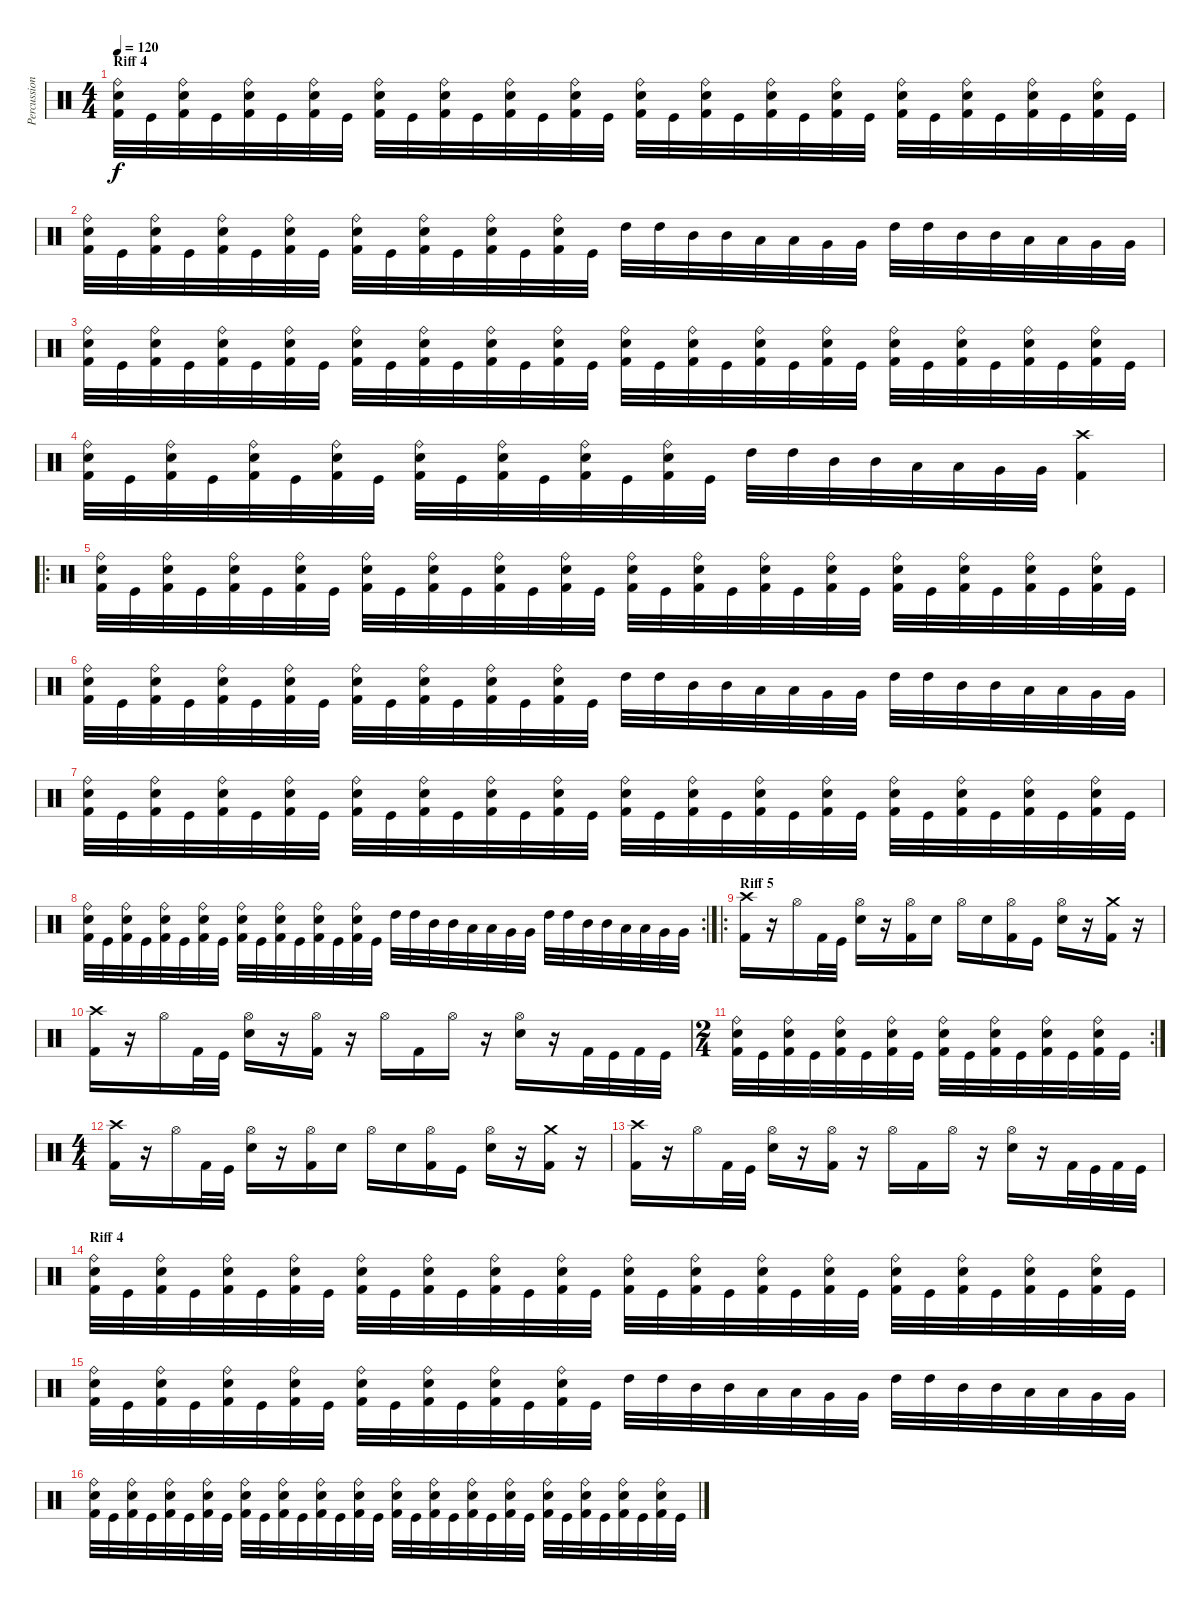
\track ("Percussion" "Percussion") {instrument percussion}
\staff {score}
\articulation defaults
\ts (4 4)
\section ("" "Riff 4")
\tempo 120
\clef neutral
\ks c
("Kick (hit) 2" "Electric Snare (hit)" "Ride (bell)").32{dy f} "Kick (hit)".32 ("Kick (hit) 2" "Electric Snare (hit)" "Ride (bell)").32 "Kick (hit)".32 ("Kick (hit) 2" "Electric Snare (hit)" "Ride (bell)").32 "Kick (hit)".32 ("Kick (hit) 2" "Electric Snare (hit)" "Ride (bell)").32 "Kick (hit)".32 ("Kick (hit) 2" "Electric Snare (hit)" "Ride (bell)").32 "Kick (hit)".32 ("Kick (hit) 2" "Electric Snare (hit)" "Ride (bell)").32 "Kick (hit)".32 ("Kick (hit) 2" "Electric Snare (hit)" "Ride (bell)").32 "Kick (hit)".32 ("Kick (hit) 2" "Electric Snare (hit)" "Ride (bell)").32 "Kick (hit)".32 ("Kick (hit) 2" "Electric Snare (hit)" "Ride (bell)").32 "Kick (hit)".32 ("Kick (hit) 2" "Electric Snare (hit)" "Ride (bell)").32 "Kick (hit)".32 ("Kick (hit) 2" "Electric Snare (hit)" "Ride (bell)").32 "Kick (hit)".32 ("Kick (hit) 2" "Electric Snare (hit)" "Ride (bell)").32 "Kick (hit)".32 ("Kick (hit) 2" "Electric Snare (hit)" "Ride (bell)").32 "Kick (hit)".32 ("Kick (hit) 2" "Electric Snare (hit)" "Ride (bell)").32 "Kick (hit)".32 ("Kick (hit) 2" "Electric Snare (hit)" "Ride (bell)").32 "Kick (hit)".32 ("Kick (hit) 2" "Electric Snare (hit)" "Ride (bell)").32 "Kick (hit)".32 |
("Kick (hit) 2" "Electric Snare (hit)" "Ride (bell)").32 "Kick (hit)".32 ("Kick (hit) 2" "Electric Snare (hit)" "Ride (bell)").32 "Kick (hit)".32 ("Kick (hit) 2" "Electric Snare (hit)" "Ride (bell)").32 "Kick (hit)".32 ("Kick (hit) 2" "Electric Snare (hit)" "Ride (bell)").32 "Kick (hit)".32 ("Kick (hit) 2" "Electric Snare (hit)" "Ride (bell)").32 "Kick (hit)".32 ("Kick (hit) 2" "Electric Snare (hit)" "Ride (bell)").32 "Kick (hit)".32 ("Kick (hit) 2" "Electric Snare (hit)" "Ride (bell)").32 "Kick (hit)".32 ("Kick (hit) 2" "Electric Snare (hit)" "Ride (bell)").32 "Kick (hit)".32 "High Tom (hit)".32 "High Tom (hit)".32 "Mid Tom (hit)".32 "Mid Tom (hit)".32 "Low Tom (hit)".32 "Low Tom (hit)".32 "Very Low Tom (hit)".32 "Very Low Tom (hit)".32 "High Tom (hit)".32 "High Tom (hit)".32 "Mid Tom (hit)".32 "Mid Tom (hit)".32 "Low Tom (hit)".32 "Low Tom (hit)".32 "Very Low Tom (hit)".32 "Very Low Tom (hit)".32 |
("Kick (hit) 2" "Electric Snare (hit)" "Ride (bell)").32 "Kick (hit)".32 ("Kick (hit) 2" "Electric Snare (hit)" "Ride (bell)").32 "Kick (hit)".32 ("Kick (hit) 2" "Electric Snare (hit)" "Ride (bell)").32 "Kick (hit)".32 ("Kick (hit) 2" "Electric Snare (hit)" "Ride (bell)").32 "Kick (hit)".32 ("Kick (hit) 2" "Electric Snare (hit)" "Ride (bell)").32 "Kick (hit)".32 ("Kick (hit) 2" "Electric Snare (hit)" "Ride (bell)").32 "Kick (hit)".32 ("Kick (hit) 2" "Electric Snare (hit)" "Ride (bell)").32 "Kick (hit)".32 ("Kick (hit) 2" "Electric Snare (hit)" "Ride (bell)").32 "Kick (hit)".32 ("Kick (hit) 2" "Electric Snare (hit)" "Ride (bell)").32 "Kick (hit)".32 ("Kick (hit) 2" "Electric Snare (hit)" "Ride (bell)").32 "Kick (hit)".32 ("Kick (hit) 2" "Electric Snare (hit)" "Ride (bell)").32 "Kick (hit)".32 ("Kick (hit) 2" "Electric Snare (hit)" "Ride (bell)").32 "Kick (hit)".32 ("Kick (hit) 2" "Electric Snare (hit)" "Ride (bell)").32 "Kick (hit)".32 ("Kick (hit) 2" "Electric Snare (hit)" "Ride (bell)").32 "Kick (hit)".32 ("Kick (hit) 2" "Electric Snare (hit)" "Ride (bell)").32 "Kick (hit)".32 ("Kick (hit) 2" "Electric Snare (hit)" "Ride (bell)").32 "Kick (hit)".32 |
("Kick (hit) 2" "Electric Snare (hit)" "Ride (bell)").32 "Kick (hit)".32 ("Kick (hit) 2" "Electric Snare (hit)" "Ride (bell)").32 "Kick (hit)".32 ("Kick (hit) 2" "Electric Snare (hit)" "Ride (bell)").32 "Kick (hit)".32 ("Kick (hit) 2" "Electric Snare (hit)" "Ride (bell)").32 "Kick (hit)".32 ("Kick (hit) 2" "Electric Snare (hit)" "Ride (bell)").32 "Kick (hit)".32 ("Kick (hit) 2" "Electric Snare (hit)" "Ride (bell)").32 "Kick (hit)".32 ("Kick (hit) 2" "Electric Snare (hit)" "Ride (bell)").32 "Kick (hit)".32 ("Kick (hit) 2" "Electric Snare (hit)" "Ride (bell)").32 "Kick (hit)".32 "High Tom (hit)".32 "High Tom (hit)".32 "Mid Tom (hit)".32 "Mid Tom (hit)".32 "Low Tom (hit)".32 "Low Tom (hit)".32 "Very Low Tom (hit)".32 "Very Low Tom (hit)".32 ("Kick (hit) 2" "Crash high (hit)").4 |
\ro
("Kick (hit) 2" "Electric Snare (hit)" "Ride (bell)").32 "Kick (hit)".32 ("Kick (hit) 2" "Electric Snare (hit)" "Ride (bell)").32 "Kick (hit)".32 ("Kick (hit) 2" "Electric Snare (hit)" "Ride (bell)").32 "Kick (hit)".32 ("Kick (hit) 2" "Electric Snare (hit)" "Ride (bell)").32 "Kick (hit)".32 ("Kick (hit) 2" "Electric Snare (hit)" "Ride (bell)").32 "Kick (hit)".32 ("Kick (hit) 2" "Electric Snare (hit)" "Ride (bell)").32 "Kick (hit)".32 ("Kick (hit) 2" "Electric Snare (hit)" "Ride (bell)").32 "Kick (hit)".32 ("Kick (hit) 2" "Electric Snare (hit)" "Ride (bell)").32 "Kick (hit)".32 ("Kick (hit) 2" "Electric Snare (hit)" "Ride (bell)").32 "Kick (hit)".32 ("Kick (hit) 2" "Electric Snare (hit)" "Ride (bell)").32 "Kick (hit)".32 ("Kick (hit) 2" "Electric Snare (hit)" "Ride (bell)").32 "Kick (hit)".32 ("Kick (hit) 2" "Electric Snare (hit)" "Ride (bell)").32 "Kick (hit)".32 ("Kick (hit) 2" "Electric Snare (hit)" "Ride (bell)").32 "Kick (hit)".32 ("Kick (hit) 2" "Electric Snare (hit)" "Ride (bell)").32 "Kick (hit)".32 ("Kick (hit) 2" "Electric Snare (hit)" "Ride (bell)").32 "Kick (hit)".32 ("Kick (hit) 2" "Electric Snare (hit)" "Ride (bell)").32 "Kick (hit)".32 |
("Kick (hit) 2" "Electric Snare (hit)" "Ride (bell)").32 "Kick (hit)".32 ("Kick (hit) 2" "Electric Snare (hit)" "Ride (bell)").32 "Kick (hit)".32 ("Kick (hit) 2" "Electric Snare (hit)" "Ride (bell)").32 "Kick (hit)".32 ("Kick (hit) 2" "Electric Snare (hit)" "Ride (bell)").32 "Kick (hit)".32 ("Kick (hit) 2" "Electric Snare (hit)" "Ride (bell)").32 "Kick (hit)".32 ("Kick (hit) 2" "Electric Snare (hit)" "Ride (bell)").32 "Kick (hit)".32 ("Kick (hit) 2" "Electric Snare (hit)" "Ride (bell)").32 "Kick (hit)".32 ("Kick (hit) 2" "Electric Snare (hit)" "Ride (bell)").32 "Kick (hit)".32 "High Tom (hit)".32 "High Tom (hit)".32 "Mid Tom (hit)".32 "Mid Tom (hit)".32 "Low Tom (hit)".32 "Low Tom (hit)".32 "Very Low Tom (hit)".32 "Very Low Tom (hit)".32 "High Tom (hit)".32 "High Tom (hit)".32 "Mid Tom (hit)".32 "Mid Tom (hit)".32 "Low Tom (hit)".32 "Low Tom (hit)".32 "Very Low Tom (hit)".32 "Very Low Tom (hit)".32 |
("Kick (hit) 2" "Electric Snare (hit)" "Ride (bell)").32 "Kick (hit)".32 ("Kick (hit) 2" "Electric Snare (hit)" "Ride (bell)").32 "Kick (hit)".32 ("Kick (hit) 2" "Electric Snare (hit)" "Ride (bell)").32 "Kick (hit)".32 ("Kick (hit) 2" "Electric Snare (hit)" "Ride (bell)").32 "Kick (hit)".32 ("Kick (hit) 2" "Electric Snare (hit)" "Ride (bell)").32 "Kick (hit)".32 ("Kick (hit) 2" "Electric Snare (hit)" "Ride (bell)").32 "Kick (hit)".32 ("Kick (hit) 2" "Electric Snare (hit)" "Ride (bell)").32 "Kick (hit)".32 ("Kick (hit) 2" "Electric Snare (hit)" "Ride (bell)").32 "Kick (hit)".32 ("Kick (hit) 2" "Electric Snare (hit)" "Ride (bell)").32 "Kick (hit)".32 ("Kick (hit) 2" "Electric Snare (hit)" "Ride (bell)").32 "Kick (hit)".32 ("Kick (hit) 2" "Electric Snare (hit)" "Ride (bell)").32 "Kick (hit)".32 ("Kick (hit) 2" "Electric Snare (hit)" "Ride (bell)").32 "Kick (hit)".32 ("Kick (hit) 2" "Electric Snare (hit)" "Ride (bell)").32 "Kick (hit)".32 ("Kick (hit) 2" "Electric Snare (hit)" "Ride (bell)").32 "Kick (hit)".32 ("Kick (hit) 2" "Electric Snare (hit)" "Ride (bell)").32 "Kick (hit)".32 ("Kick (hit) 2" "Electric Snare (hit)" "Ride (bell)").32 "Kick (hit)".32 |
\rc 2
("Kick (hit) 2" "Electric Snare (hit)" "Ride (bell)").32 "Kick (hit)".32 ("Kick (hit) 2" "Electric Snare (hit)" "Ride (bell)").32 "Kick (hit)".32 ("Kick (hit) 2" "Electric Snare (hit)" "Ride (bell)").32 "Kick (hit)".32 ("Kick (hit) 2" "Electric Snare (hit)" "Ride (bell)").32 "Kick (hit)".32 ("Kick (hit) 2" "Electric Snare (hit)" "Ride (bell)").32 "Kick (hit)".32 ("Kick (hit) 2" "Electric Snare (hit)" "Ride (bell)").32 "Kick (hit)".32 ("Kick (hit) 2" "Electric Snare (hit)" "Ride (bell)").32 "Kick (hit)".32 ("Kick (hit) 2" "Electric Snare (hit)" "Ride (bell)").32 "Kick (hit)".32 "High Tom (hit)".32 "High Tom (hit)".32 "Mid Tom (hit)".32 "Mid Tom (hit)".32 "Low Tom (hit)".32 "Low Tom (hit)".32 "Very Low Tom (hit)".32 "Very Low Tom (hit)".32 "High Tom (hit)".32 "High Tom (hit)".32 "Mid Tom (hit)".32 "Mid Tom (hit)".32 "Low Tom (hit)".32 "Low Tom (hit)".32 "Very Low Tom (hit)".32 "Very Low Tom (hit)".32 |
\ro
\section ("" "Riff 5")
("Kick (hit) 2" "Crash high (hit)").16 r.16 "Hi-Hat (open)".16 "Kick (hit) 2".32 "Kick (hit)".32 ("Electric Snare (hit)" "Hi-Hat (open)").16 r.16 ("Kick (hit) 2" "Hi-Hat (open)").16 "Electric Snare (hit)".16 "Hi-Hat (open)".16 "Electric Snare (hit)".16 ("Kick (hit) 2" "Hi-Hat (open)").16 "Kick (hit)".16 ("Electric Snare (hit)" "Hi-Hat (open)").16 r.16 ("Kick (hit) 2" "Crash medium (hit)").16 r.16 |
("Kick (hit) 2" "Crash high (hit)").16 r.16 "Hi-Hat (open)".16 "Kick (hit) 2".32 "Kick (hit)".32 ("Electric Snare (hit)" "Hi-Hat (open)").16 r.16 ("Kick (hit) 2" "Hi-Hat (open)").16 r.16 "Hi-Hat (open)".16 "Kick (hit) 2".16 "Hi-Hat (open)".16 r.16 ("Electric Snare (hit)" "Hi-Hat (open)").16 r.16 "Kick (hit) 2".32 "Kick (hit)".32 "Kick (hit) 2".32 "Kick (hit)".32 |
\rc 2
\ts (2 4)
("Kick (hit) 2" "Electric Snare (hit)" "Ride (bell)").32 "Kick (hit)".32 ("Kick (hit) 2" "Electric Snare (hit)" "Ride (bell)").32 "Kick (hit)".32 ("Kick (hit) 2" "Electric Snare (hit)" "Ride (bell)").32 "Kick (hit)".32 ("Kick (hit) 2" "Electric Snare (hit)" "Ride (bell)").32 "Kick (hit)".32 ("Kick (hit) 2" "Electric Snare (hit)" "Ride (bell)").32 "Kick (hit)".32 ("Kick (hit) 2" "Electric Snare (hit)" "Ride (bell)").32 "Kick (hit)".32 ("Kick (hit) 2" "Electric Snare (hit)" "Ride (bell)").32 "Kick (hit)".32 ("Kick (hit) 2" "Electric Snare (hit)" "Ride (bell)").32 "Kick (hit)".32 |
\ts (4 4)
("Kick (hit) 2" "Crash high (hit)").16 r.16 "Hi-Hat (open)".16 "Kick (hit) 2".32 "Kick (hit)".32 ("Electric Snare (hit)" "Hi-Hat (open)").16 r.16 ("Kick (hit) 2" "Hi-Hat (open)").16 "Electric Snare (hit)".16 "Hi-Hat (open)".16 "Electric Snare (hit)".16 ("Kick (hit) 2" "Hi-Hat (open)").16 "Kick (hit)".16 ("Electric Snare (hit)" "Hi-Hat (open)").16 r.16 ("Kick (hit) 2" "Crash medium (hit)").16 r.16 |
("Kick (hit) 2" "Crash high (hit)").16 r.16 "Hi-Hat (open)".16 "Kick (hit) 2".32 "Kick (hit)".32 ("Electric Snare (hit)" "Hi-Hat (open)").16 r.16 ("Kick (hit) 2" "Hi-Hat (open)").16 r.16 "Hi-Hat (open)".16 "Kick (hit) 2".16 "Hi-Hat (open)".16 r.16 ("Electric Snare (hit)" "Hi-Hat (open)").16 r.16 "Kick (hit) 2".32 "Kick (hit)".32 "Kick (hit) 2".32 "Kick (hit)".32 |
\section ("" "Riff 4")
("Kick (hit) 2" "Electric Snare (hit)" "Ride (bell)").32 "Kick (hit)".32 ("Kick (hit) 2" "Electric Snare (hit)" "Ride (bell)").32 "Kick (hit)".32 ("Kick (hit) 2" "Electric Snare (hit)" "Ride (bell)").32 "Kick (hit)".32 ("Kick (hit) 2" "Electric Snare (hit)" "Ride (bell)").32 "Kick (hit)".32 ("Kick (hit) 2" "Electric Snare (hit)" "Ride (bell)").32 "Kick (hit)".32 ("Kick (hit) 2" "Electric Snare (hit)" "Ride (bell)").32 "Kick (hit)".32 ("Kick (hit) 2" "Electric Snare (hit)" "Ride (bell)").32 "Kick (hit)".32 ("Kick (hit) 2" "Electric Snare (hit)" "Ride (bell)").32 "Kick (hit)".32 ("Kick (hit) 2" "Electric Snare (hit)" "Ride (bell)").32 "Kick (hit)".32 ("Kick (hit) 2" "Electric Snare (hit)" "Ride (bell)").32 "Kick (hit)".32 ("Kick (hit) 2" "Electric Snare (hit)" "Ride (bell)").32 "Kick (hit)".32 ("Kick (hit) 2" "Electric Snare (hit)" "Ride (bell)").32 "Kick (hit)".32 ("Kick (hit) 2" "Electric Snare (hit)" "Ride (bell)").32 "Kick (hit)".32 ("Kick (hit) 2" "Electric Snare (hit)" "Ride (bell)").32 "Kick (hit)".32 ("Kick (hit) 2" "Electric Snare (hit)" "Ride (bell)").32 "Kick (hit)".32 ("Kick (hit) 2" "Electric Snare (hit)" "Ride (bell)").32 "Kick (hit)".32 |
("Kick (hit) 2" "Electric Snare (hit)" "Ride (bell)").32 "Kick (hit)".32 ("Kick (hit) 2" "Electric Snare (hit)" "Ride (bell)").32 "Kick (hit)".32 ("Kick (hit) 2" "Electric Snare (hit)" "Ride (bell)").32 "Kick (hit)".32 ("Kick (hit) 2" "Electric Snare (hit)" "Ride (bell)").32 "Kick (hit)".32 ("Kick (hit) 2" "Electric Snare (hit)" "Ride (bell)").32 "Kick (hit)".32 ("Kick (hit) 2" "Electric Snare (hit)" "Ride (bell)").32 "Kick (hit)".32 ("Kick (hit) 2" "Electric Snare (hit)" "Ride (bell)").32 "Kick (hit)".32 ("Kick (hit) 2" "Electric Snare (hit)" "Ride (bell)").32 "Kick (hit)".32 "High Tom (hit)".32 "High Tom (hit)".32 "Mid Tom (hit)".32 "Mid Tom (hit)".32 "Low Tom (hit)".32 "Low Tom (hit)".32 "Very Low Tom (hit)".32 "Very Low Tom (hit)".32 "High Tom (hit)".32 "High Tom (hit)".32 "Mid Tom (hit)".32 "Mid Tom (hit)".32 "Low Tom (hit)".32 "Low Tom (hit)".32 "Very Low Tom (hit)".32 "Very Low Tom (hit)".32 |
("Kick (hit) 2" "Electric Snare (hit)" "Ride (bell)").32 "Kick (hit)".32 ("Kick (hit) 2" "Electric Snare (hit)" "Ride (bell)").32 "Kick (hit)".32 ("Kick (hit) 2" "Electric Snare (hit)" "Ride (bell)").32 "Kick (hit)".32 ("Kick (hit) 2" "Electric Snare (hit)" "Ride (bell)").32 "Kick (hit)".32 ("Kick (hit) 2" "Electric Snare (hit)" "Ride (bell)").32 "Kick (hit)".32 ("Kick (hit) 2" "Electric Snare (hit)" "Ride (bell)").32 "Kick (hit)".32 ("Kick (hit) 2" "Electric Snare (hit)" "Ride (bell)").32 "Kick (hit)".32 ("Kick (hit) 2" "Electric Snare (hit)" "Ride (bell)").32 "Kick (hit)".32 ("Kick (hit) 2" "Electric Snare (hit)" "Ride (bell)").32 "Kick (hit)".32 ("Kick (hit) 2" "Electric Snare (hit)" "Ride (bell)").32 "Kick (hit)".32 ("Kick (hit) 2" "Electric Snare (hit)" "Ride (bell)").32 "Kick (hit)".32 ("Kick (hit) 2" "Electric Snare (hit)" "Ride (bell)").32 "Kick (hit)".32 ("Kick (hit) 2" "Electric Snare (hit)" "Ride (bell)").32 "Kick (hit)".32 ("Kick (hit) 2" "Electric Snare (hit)" "Ride (bell)").32 "Kick (hit)".32 ("Kick (hit) 2" "Electric Snare (hit)" "Ride (bell)").32 "Kick (hit)".32 ("Kick (hit) 2" "Electric Snare (hit)" "Ride (bell)").32 "Kick (hit)".32
